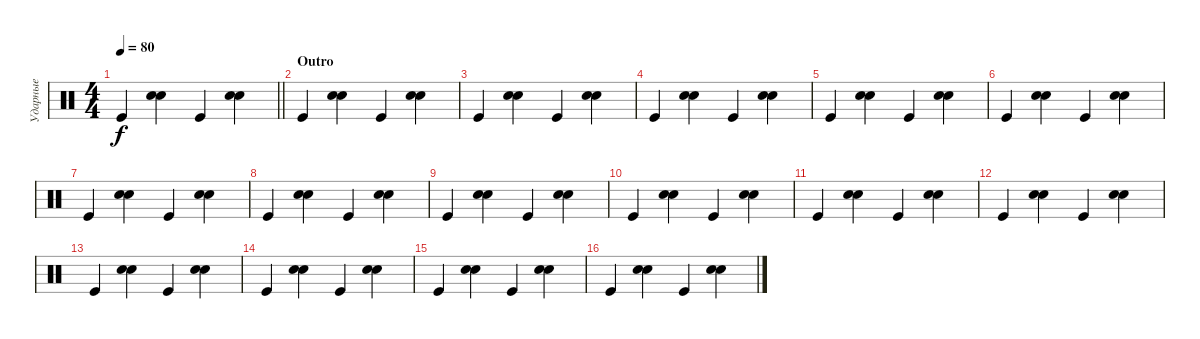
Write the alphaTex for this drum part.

\track ("Ударные" "Ударные") {instrument percussion}
\staff {score}
\articulation defaults
\ts (4 4)
\tempo 80
\clef neutral
\barLineRight lightlight
\ks aminor "Kick (hit)".4{dy f}
("Snare (hit) 2" "Snare (hit) 2").4{bd 120} "Kick (hit)".4 ("Snare (hit) 2" "Snare (hit) 2").4{bd 120} |
\section ("" "Outro")
"Kick (hit)".4 ("Snare (hit) 2" "Snare (hit) 2").4{bd 120} "Kick (hit)".4 ("Snare (hit) 2" "Snare (hit) 2").4{bd 120} |
"Kick (hit)".4 ("Snare (hit) 2" "Snare (hit) 2").4{bd 120} "Kick (hit)".4 ("Snare (hit) 2" "Snare (hit) 2").4{bd 120} |
"Kick (hit)".4 ("Snare (hit) 2" "Snare (hit) 2").4{bd 120} "Kick (hit)".4 ("Snare (hit) 2" "Snare (hit) 2").4{bd 120} |
"Kick (hit)".4 ("Snare (hit) 2" "Snare (hit) 2").4{bd 120} "Kick (hit)".4 ("Snare (hit) 2" "Snare (hit) 2").4{bd 120} |
"Kick (hit)".4 ("Snare (hit) 2" "Snare (hit) 2").4{bd 120} "Kick (hit)".4 ("Snare (hit) 2" "Snare (hit) 2").4{bd 120} |
"Kick (hit)".4 ("Snare (hit) 2" "Snare (hit) 2").4{bd 120} "Kick (hit)".4 ("Snare (hit) 2" "Snare (hit) 2").4{bd 120} |
"Kick (hit)".4 ("Snare (hit) 2" "Snare (hit) 2").4{bd 120} "Kick (hit)".4 ("Snare (hit) 2" "Snare (hit) 2").4{bd 120} |
"Kick (hit)".4 ("Snare (hit) 2" "Snare (hit) 2").4{bd 120} "Kick (hit)".4 ("Snare (hit) 2" "Snare (hit) 2").4{bd 120} |
"Kick (hit)".4 ("Snare (hit) 2" "Snare (hit) 2").4{bd 120} "Kick (hit)".4 ("Snare (hit) 2" "Snare (hit) 2").4{bd 120} |
"Kick (hit)".4 ("Snare (hit) 2" "Snare (hit) 2").4{bd 120} "Kick (hit)".4 ("Snare (hit) 2" "Snare (hit) 2").4{bd 120} |
"Kick (hit)".4 ("Snare (hit) 2" "Snare (hit) 2").4{bd 120} "Kick (hit)".4 ("Snare (hit) 2" "Snare (hit) 2").4{bd 120} |
"Kick (hit)".4 ("Snare (hit) 2" "Snare (hit) 2").4{bd 120} "Kick (hit)".4 ("Snare (hit) 2" "Snare (hit) 2").4{bd 120} |
"Kick (hit)".4 ("Snare (hit) 2" "Snare (hit) 2").4{bd 120} "Kick (hit)".4 ("Snare (hit) 2" "Snare (hit) 2").4{bd 120} |
"Kick (hit)".4 ("Snare (hit) 2" "Snare (hit) 2").4{bd 120} "Kick (hit)".4 ("Snare (hit) 2" "Snare (hit) 2").4{bd 120} |
"Kick (hit)".4 ("Snare (hit) 2" "Snare (hit) 2").4{bd 120} "Kick (hit)".4 ("Snare (hit) 2" "Snare (hit) 2").4{bd 120}
